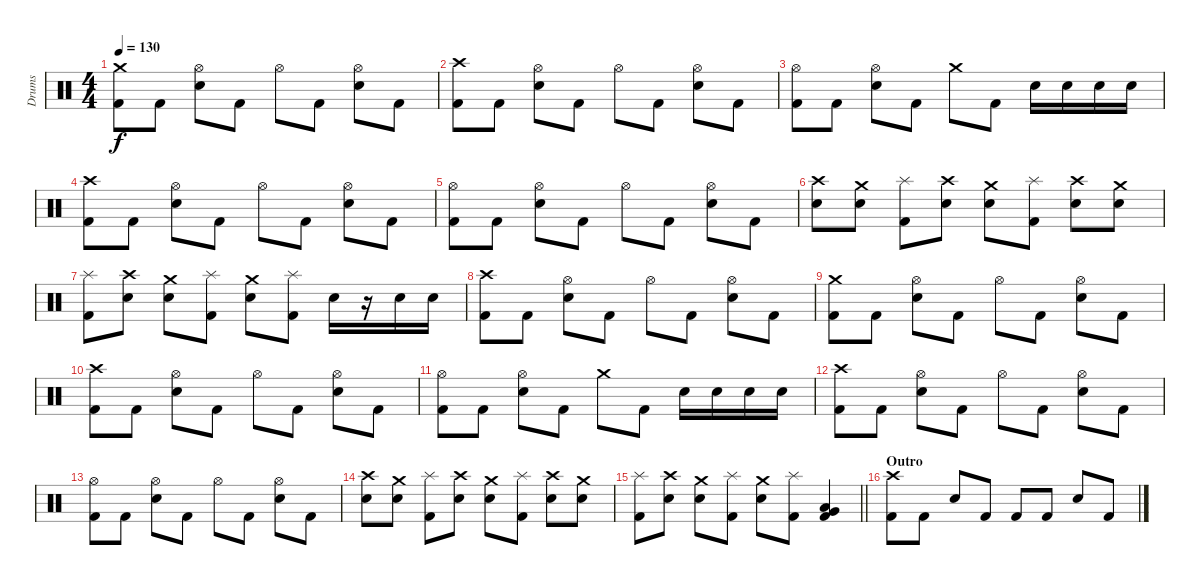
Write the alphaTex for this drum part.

\track ("Drums" "Drums") {instrument percussion}
\staff {score}
\articulation defaults
\ts (4 4)
\tempo 130
\clef neutral
\ks c
("Crash medium (hit)" "Kick (hit) 2").8{dy f} "Kick (hit) 2".8 ("Hi-Hat (open)" "Electric Snare (hit)").8 "Kick (hit) 2".8 "Hi-Hat (open)".8 "Kick (hit) 2".8 ("Hi-Hat (open)" "Electric Snare (hit)").8 "Kick (hit) 2".8 |
("Crash high (hit)" "Kick (hit) 2").8 "Kick (hit) 2".8 ("Hi-Hat (open)" "Electric Snare (hit)").8 "Kick (hit) 2".8 "Hi-Hat (open)".8 "Kick (hit) 2".8 ("Hi-Hat (open)" "Electric Snare (hit)").8 "Kick (hit) 2".8 |
("Hi-Hat (open)" "Kick (hit) 2").8 "Kick (hit) 2".8 ("Hi-Hat (open)" "Electric Snare (hit)").8 "Kick (hit) 2".8 "Crash medium (hit)".8 "Kick (hit) 2".8 "Electric Snare (hit)".16 "Electric Snare (hit)".16 "Electric Snare (hit)".16 "Electric Snare (hit)".16 |
("Crash high (hit)" "Kick (hit) 2").8 "Kick (hit) 2".8 ("Hi-Hat (open)" "Electric Snare (hit)").8 "Kick (hit) 2".8 "Hi-Hat (open)".8 "Kick (hit) 2".8 ("Hi-Hat (open)" "Electric Snare (hit)").8 "Kick (hit) 2".8 |
("Hi-Hat (open)" "Kick (hit) 2").8 "Kick (hit) 2".8 ("Hi-Hat (open)" "Electric Snare (hit)").8 "Kick (hit) 2".8 "Hi-Hat (open)".8 "Kick (hit) 2".8 ("Hi-Hat (open)" "Electric Snare (hit)").8 "Kick (hit) 2".8 |
("Crash high (hit)" "Electric Snare (hit)").8 ("Crash medium (hit)" "Electric Snare (hit)").8 ("Splash (hit)" "Kick (hit) 2").8 ("Crash high (hit)" "Electric Snare (hit)").8 ("Crash medium (hit)" "Electric Snare (hit)").8 ("Splash (hit)" "Kick (hit) 2").8 ("Crash high (hit)" "Electric Snare (hit)").8 ("Crash medium (hit)" "Electric Snare (hit)").8 |
("Splash (hit)" "Kick (hit) 2").8 ("Crash high (hit)" "Electric Snare (hit)").8 ("Crash medium (hit)" "Electric Snare (hit)").8 ("Splash (hit)" "Kick (hit) 2").8 ("Crash medium (hit)" "Electric Snare (hit)").8 ("Splash (hit)" "Kick (hit) 2").8 "Electric Snare (hit)".16 r.16 "Electric Snare (hit)".16 "Electric Snare (hit)".16 |
("Crash high (hit)" "Kick (hit) 2").8 "Kick (hit) 2".8 ("Hi-Hat (open)" "Electric Snare (hit)").8 "Kick (hit) 2".8 "Hi-Hat (open)".8 "Kick (hit) 2".8 ("Hi-Hat (open)" "Electric Snare (hit)").8 "Kick (hit) 2".8 |
("Crash medium (hit)" "Kick (hit) 2").8 "Kick (hit) 2".8 ("Hi-Hat (open)" "Electric Snare (hit)").8 "Kick (hit) 2".8 "Hi-Hat (open)".8 "Kick (hit) 2".8 ("Hi-Hat (open)" "Electric Snare (hit)").8 "Kick (hit) 2".8 |
("Crash high (hit)" "Kick (hit) 2").8 "Kick (hit) 2".8 ("Hi-Hat (open)" "Electric Snare (hit)").8 "Kick (hit) 2".8 "Hi-Hat (open)".8 "Kick (hit) 2".8 ("Hi-Hat (open)" "Electric Snare (hit)").8 "Kick (hit) 2".8 |
("Hi-Hat (open)" "Kick (hit) 2").8 "Kick (hit) 2".8 ("Hi-Hat (open)" "Electric Snare (hit)").8 "Kick (hit) 2".8 "Crash medium (hit)".8 "Kick (hit) 2".8 "Electric Snare (hit)".16 "Electric Snare (hit)".16 "Electric Snare (hit)".16 "Electric Snare (hit)".16 |
("Crash high (hit)" "Kick (hit) 2").8 "Kick (hit) 2".8 ("Hi-Hat (open)" "Electric Snare (hit)").8 "Kick (hit) 2".8 "Hi-Hat (open)".8 "Kick (hit) 2".8 ("Hi-Hat (open)" "Electric Snare (hit)").8 "Kick (hit) 2".8 |
("Hi-Hat (open)" "Kick (hit) 2").8 "Kick (hit) 2".8 ("Hi-Hat (open)" "Electric Snare (hit)").8 "Kick (hit) 2".8 "Hi-Hat (open)".8 "Kick (hit) 2".8 ("Hi-Hat (open)" "Electric Snare (hit)").8 "Kick (hit) 2".8 |
("Crash high (hit)" "Electric Snare (hit)").8 ("Crash medium (hit)" "Electric Snare (hit)").8 ("Splash (hit)" "Kick (hit) 2").8 ("Crash high (hit)" "Electric Snare (hit)").8 ("Crash medium (hit)" "Electric Snare (hit)").8 ("Splash (hit)" "Kick (hit) 2").8 ("Crash high (hit)" "Electric Snare (hit)").8 ("Crash medium (hit)" "Electric Snare (hit)").8 |
\barLineRight lightlight
("Splash (hit)" "Kick (hit) 2").8 ("Crash high (hit)" "Electric Snare (hit)").8 ("Crash medium (hit)" "Electric Snare (hit)").8 ("Splash (hit)" "Kick (hit) 2").8 ("Crash medium (hit)" "Electric Snare (hit)").8 ("Splash (hit)" "Kick (hit) 2").8 ("Very Low Tom (hit)" "Low Floor Tom (hit)" "Kick (hit) 2").4 |
\section ("" "Outro")
("Crash high (hit)" "Kick (hit) 2").8 "Kick (hit) 2".8 "Electric Snare (hit)".8 "Kick (hit) 2".8 "Kick (hit) 2".8 "Kick (hit) 2".8 "Electric Snare (hit)".8 "Kick (hit) 2".8
